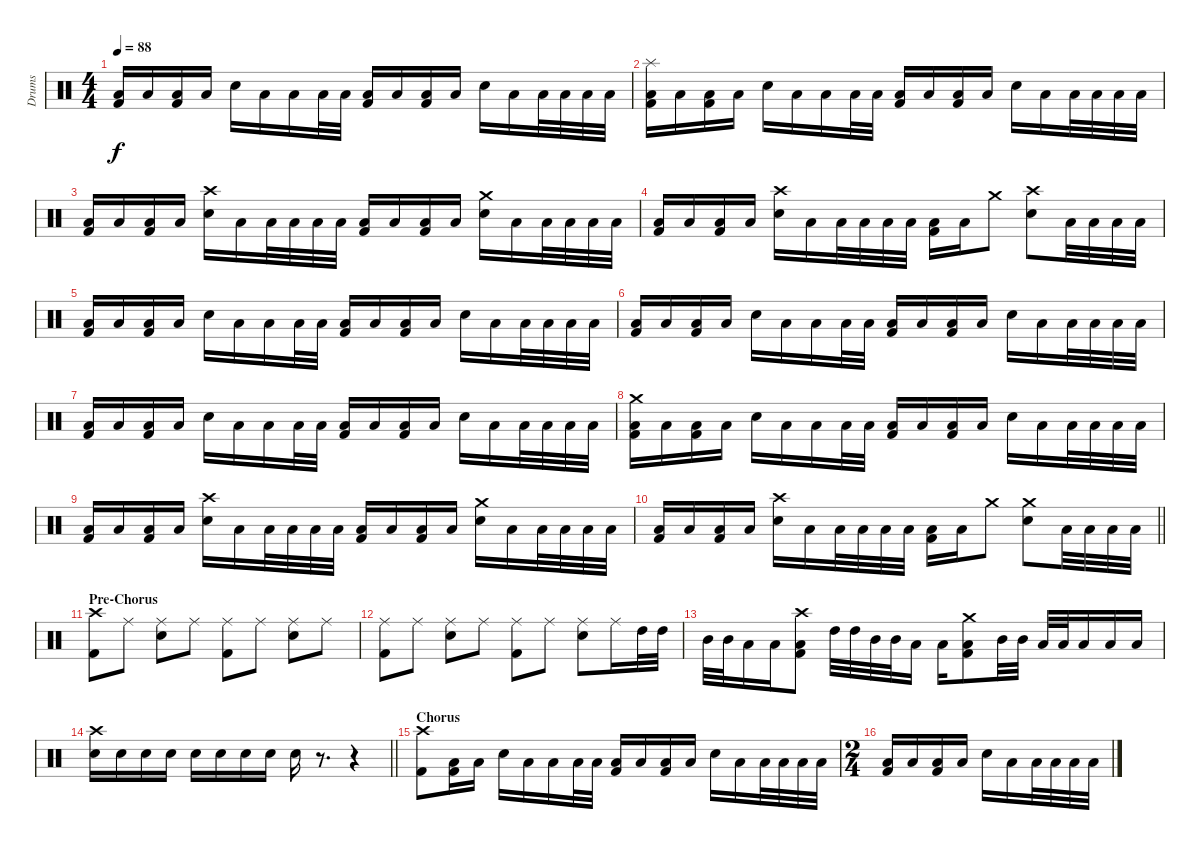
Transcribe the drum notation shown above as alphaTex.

\track ("Drums" "Drums") {instrument percussion}
\staff {score}
\articulation defaults
\ts (4 4)
\tempo 88
\clef neutral
\ks c
("Low Tom (hit)" "Kick (hit) 2").16{dy f} "Low Tom (hit)".16 ("Low Tom (hit)" "Kick (hit) 2").16 "Low Tom (hit)".16 "Snare (hit) 2".16 "Low Tom (hit)".16 "Low Tom (hit)".16 "Low Tom (hit)".32 "Low Tom (hit)".32 ("Low Tom (hit)" "Kick (hit) 2").16 "Low Tom (hit)".16 ("Low Tom (hit)" "Kick (hit) 2").16 "Low Tom (hit)".16 "Snare (hit) 2".16 "Low Tom (hit)".16 "Low Tom (hit)".32 "Low Tom (hit)".32 "Low Tom (hit)".32 "Low Tom (hit)".32 |
("Splash (hit)" "Low Tom (hit)" "Kick (hit) 2").16 "Low Tom (hit)".16 ("Low Tom (hit)" "Kick (hit) 2").16 "Low Tom (hit)".16 "Snare (hit) 2".16 "Low Tom (hit)".16 "Low Tom (hit)".16 "Low Tom (hit)".32 "Low Tom (hit)".32 ("Low Tom (hit)" "Kick (hit) 2").16 "Low Tom (hit)".16 ("Low Tom (hit)" "Kick (hit) 2").16 "Low Tom (hit)".16 "Snare (hit) 2".16 "Low Tom (hit)".16 "Low Tom (hit)".32 "Low Tom (hit)".32 "Low Tom (hit)".32 "Low Tom (hit)".32 |
("Low Tom (hit)" "Kick (hit) 2").16 "Low Tom (hit)".16 ("Low Tom (hit)" "Kick (hit) 2").16 "Low Tom (hit)".16 ("Crash high (hit)" "Snare (hit) 2").16 "Low Tom (hit)".16 "Low Tom (hit)".32 "Low Tom (hit)".32 "Low Tom (hit)".32 "Low Tom (hit)".32 ("Low Tom (hit)" "Kick (hit) 2").16 "Low Tom (hit)".16 ("Low Tom (hit)" "Kick (hit) 2").16 "Low Tom (hit)".16 ("Crash medium (hit)" "Snare (hit) 2").16 "Low Tom (hit)".16 "Low Tom (hit)".32 "Low Tom (hit)".32 "Low Tom (hit)".32 "Low Tom (hit)".32 |
("Low Tom (hit)" "Kick (hit) 2").16 "Low Tom (hit)".16 ("Low Tom (hit)" "Kick (hit) 2").16 "Low Tom (hit)".16 ("Crash high (hit)" "Snare (hit) 2").16 "Low Tom (hit)".16 "Low Tom (hit)".32 "Low Tom (hit)".32 "Low Tom (hit)".32 "Low Tom (hit)".32 ("Low Tom (hit)" "Kick (hit) 2").16 "Low Tom (hit)".16 "Crash medium (hit)".8 ("Crash high (hit)" "Snare (hit) 2").8 "Low Tom (hit)".32 "Low Tom (hit)".32 "Low Tom (hit)".32 "Low Tom (hit)".32 |
("Low Tom (hit)" "Kick (hit) 2").16 "Low Tom (hit)".16 ("Low Tom (hit)" "Kick (hit) 2").16 "Low Tom (hit)".16 "Snare (hit) 2".16 "Low Tom (hit)".16 "Low Tom (hit)".16 "Low Tom (hit)".32 "Low Tom (hit)".32 ("Low Tom (hit)" "Kick (hit) 2").16 "Low Tom (hit)".16 ("Low Tom (hit)" "Kick (hit) 2").16 "Low Tom (hit)".16 "Snare (hit) 2".16 "Low Tom (hit)".16 "Low Tom (hit)".32 "Low Tom (hit)".32 "Low Tom (hit)".32 "Low Tom (hit)".32 |
("Low Tom (hit)" "Kick (hit) 2").16 "Low Tom (hit)".16 ("Low Tom (hit)" "Kick (hit) 2").16 "Low Tom (hit)".16 "Snare (hit) 2".16 "Low Tom (hit)".16 "Low Tom (hit)".16 "Low Tom (hit)".32 "Low Tom (hit)".32 ("Low Tom (hit)" "Kick (hit) 2").16 "Low Tom (hit)".16 ("Low Tom (hit)" "Kick (hit) 2").16 "Low Tom (hit)".16 "Snare (hit) 2".16 "Low Tom (hit)".16 "Low Tom (hit)".32 "Low Tom (hit)".32 "Low Tom (hit)".32 "Low Tom (hit)".32 |
("Low Tom (hit)" "Kick (hit) 2").16 "Low Tom (hit)".16 ("Low Tom (hit)" "Kick (hit) 2").16 "Low Tom (hit)".16 "Snare (hit) 2".16 "Low Tom (hit)".16 "Low Tom (hit)".16 "Low Tom (hit)".32 "Low Tom (hit)".32 ("Low Tom (hit)" "Kick (hit) 2").16 "Low Tom (hit)".16 ("Low Tom (hit)" "Kick (hit) 2").16 "Low Tom (hit)".16 "Snare (hit) 2".16 "Low Tom (hit)".16 "Low Tom (hit)".32 "Low Tom (hit)".32 "Low Tom (hit)".32 "Low Tom (hit)".32 |
("Crash medium (hit)" "Low Tom (hit)" "Kick (hit) 2").16 "Low Tom (hit)".16 ("Low Tom (hit)" "Kick (hit) 2").16 "Low Tom (hit)".16 "Snare (hit) 2".16 "Low Tom (hit)".16 "Low Tom (hit)".16 "Low Tom (hit)".32 "Low Tom (hit)".32 ("Low Tom (hit)" "Kick (hit) 2").16 "Low Tom (hit)".16 ("Low Tom (hit)" "Kick (hit) 2").16 "Low Tom (hit)".16 "Snare (hit) 2".16 "Low Tom (hit)".16 "Low Tom (hit)".32 "Low Tom (hit)".32 "Low Tom (hit)".32 "Low Tom (hit)".32 |
("Low Tom (hit)" "Kick (hit) 2").16 "Low Tom (hit)".16 ("Low Tom (hit)" "Kick (hit) 2").16 "Low Tom (hit)".16 ("Crash high (hit)" "Snare (hit) 2").16 "Low Tom (hit)".16 "Low Tom (hit)".32 "Low Tom (hit)".32 "Low Tom (hit)".32 "Low Tom (hit)".32 ("Low Tom (hit)" "Kick (hit) 2").16 "Low Tom (hit)".16 ("Low Tom (hit)" "Kick (hit) 2").16 "Low Tom (hit)".16 ("Crash medium (hit)" "Snare (hit) 2").16 "Low Tom (hit)".16 "Low Tom (hit)".32 "Low Tom (hit)".32 "Low Tom (hit)".32 "Low Tom (hit)".32 |
\barLineRight lightlight
("Low Tom (hit)" "Kick (hit) 2").16 "Low Tom (hit)".16 ("Low Tom (hit)" "Kick (hit) 2").16 "Low Tom (hit)".16 ("Crash high (hit)" "Snare (hit) 2").16 "Low Tom (hit)".16 "Low Tom (hit)".32 "Low Tom (hit)".32 "Low Tom (hit)".32 "Low Tom (hit)".32 ("Low Tom (hit)" "Kick (hit) 2").16 "Low Tom (hit)".16 "Crash medium (hit)".8 ("Crash medium (hit)" "Snare (hit) 2").8 "Low Tom (hit)".32 "Low Tom (hit)".32 "Low Tom (hit)".32 "Low Tom (hit)".32 |
\section ("" "Pre-Chorus")
("Crash high (hit)" "Kick (hit) 2").8 "Ride (middle)".8 ("Ride (middle)" "Snare (hit) 2").8 "Ride (middle)".8 ("Ride (middle)" "Kick (hit) 2").8 "Ride (middle)".8 ("Ride (middle)" "Snare (hit) 2").8 "Ride (middle)".8 |
("Ride (middle)" "Kick (hit) 2").8 "Ride (middle)".8 ("Ride (middle)" "Snare (hit) 2").8 "Ride (middle)".8 ("Ride (middle)" "Kick (hit) 2").8 "Ride (middle)".8 ("Ride (middle)" "Snare (hit) 2").8 "Ride (middle)".16 "High Tom (hit)".32 "High Tom (hit)".32 |
"Mid Tom (hit)".32 "Mid Tom (hit)".32 "Low Tom (hit)".16 "Low Tom (hit)".16 ("Crash high (hit)" "Low Tom (hit)" "Kick (hit) 2").8 "High Tom (hit)".32 "High Tom (hit)".32 "Mid Tom (hit)".32 "Mid Tom (hit)".32 "Low Tom (hit)".16 "Low Tom (hit)".16 ("Crash medium (hit)" "Low Tom (hit)" "Kick (hit) 2").8 "Mid Tom (hit)".32 "Mid Tom (hit)".32 "Low Tom (hit)".32 "Low Tom (hit)".32 "Low Tom (hit)".16 "Low Tom (hit)".16 "Low Tom (hit)".16 |
\barLineRight lightlight
("Crash high (hit)" "Snare (hit) 2").16 "Snare (hit) 2".16 "Snare (hit) 2".16 "Snare (hit) 2".16 "Snare (hit) 2".16 "Snare (hit) 2".16 "Snare (hit) 2".16 "Snare (hit) 2".16 "Snare (hit) 2".16 r.8{d} r.4 |
\section ("" "Chorus")
("Crash high (hit)" "Kick (hit) 2").8 ("Low Tom (hit)" "Kick (hit) 2").16 "Low Tom (hit)".16 "Snare (hit) 2".16 "Low Tom (hit)".16 "Low Tom (hit)".16 "Low Tom (hit)".32 "Low Tom (hit)".32 ("Low Tom (hit)" "Kick (hit) 2").16 "Low Tom (hit)".16 ("Low Tom (hit)" "Kick (hit) 2").16 "Low Tom (hit)".16 "Snare (hit) 2".16 "Low Tom (hit)".16 "Low Tom (hit)".32 "Low Tom (hit)".32 "Low Tom (hit)".32 "Low Tom (hit)".32 |
\ts (2 4)
("Low Tom (hit)" "Kick (hit) 2").16 "Low Tom (hit)".16 ("Low Tom (hit)" "Kick (hit) 2").16 "Low Tom (hit)".16 "Snare (hit) 2".16 "Low Tom (hit)".16 "Low Tom (hit)".32 "Low Tom (hit)".32 "Low Tom (hit)".32 "Low Tom (hit)".32
